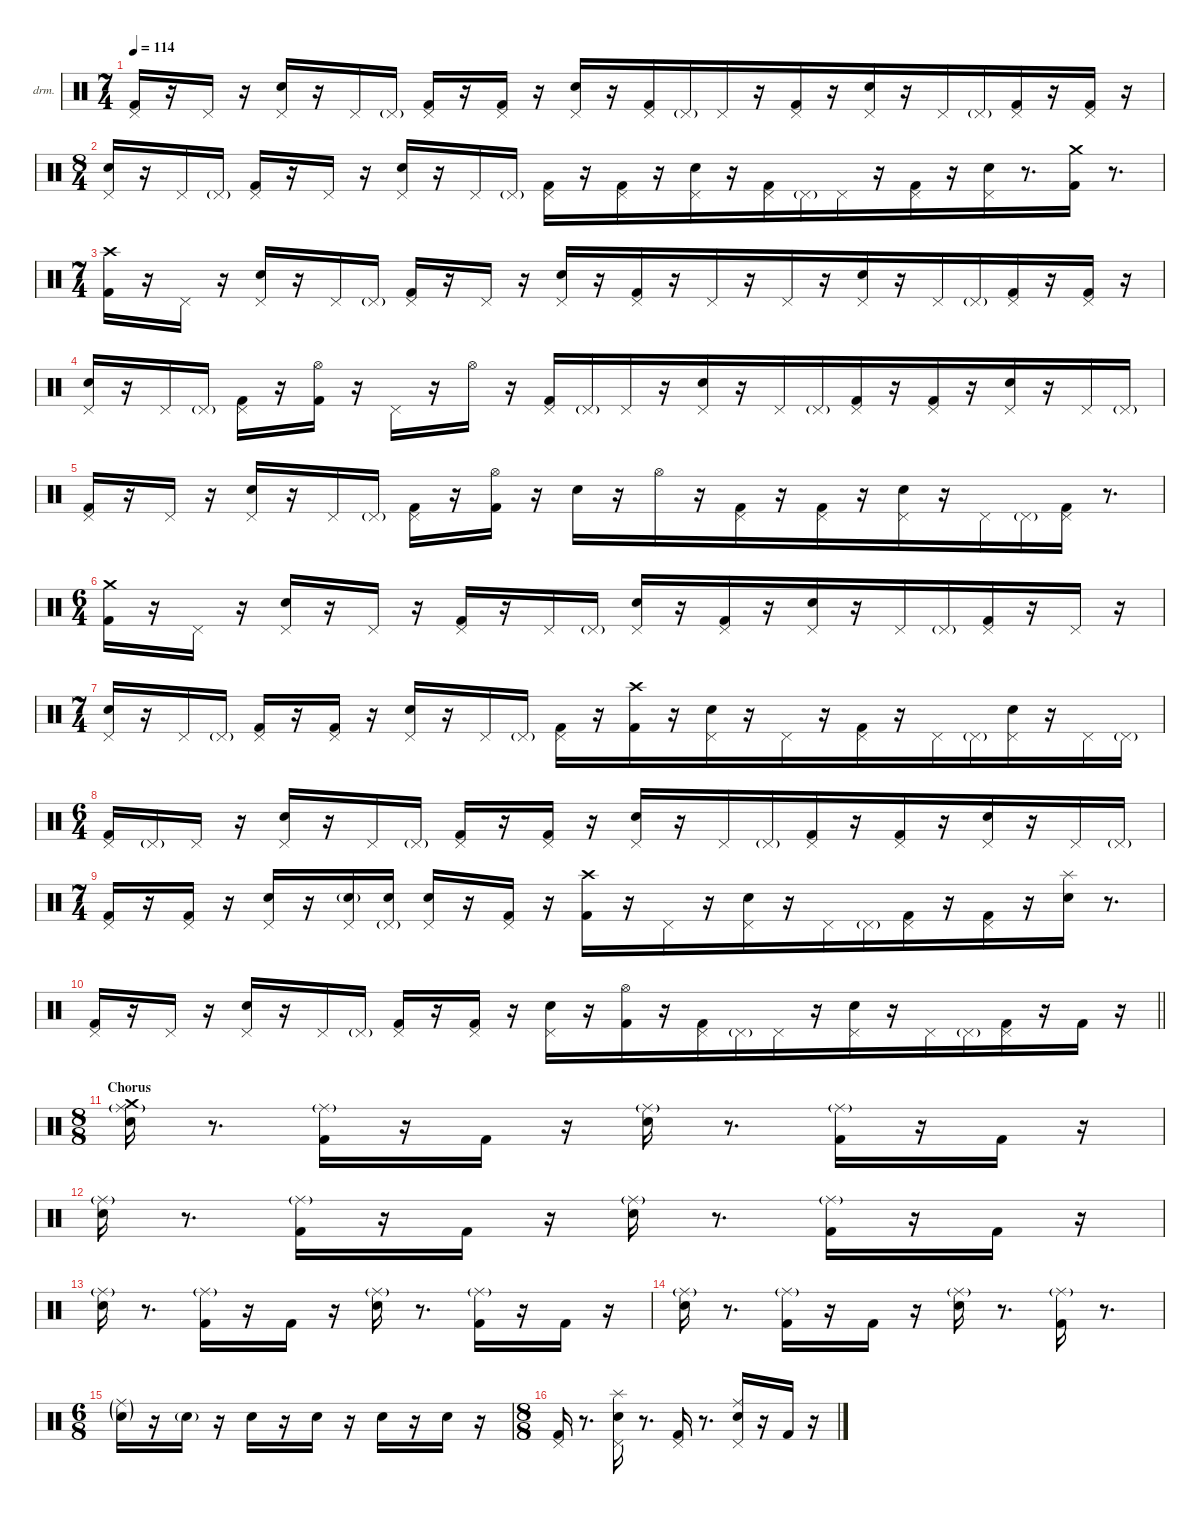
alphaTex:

\defaultSystemsLayout 4
\hideDynamics
\bracketExtendMode nobrackets
\firstSystemTrackNameOrientation horizontal
\otherSystemsTrackNameOrientation horizontal
\track ("Drums" "drm.") {instrument percussion}
\staff {score}
\articulation defaults
\ts (7 4)
\beaming (8 2 2 2 8)
\tempo 114
\clef neutral
\ks c
("Pedal Hi-Hat (hit)" "Kick (hit) 2").16{dy f beam Up} r.16{beam Up} "Pedal Hi-Hat (hit)".16{beam Up} r.16{beam Up} ("Pedal Hi-Hat (hit)" "Snare (hit) 2").16{beam Up} r.16{beam Up} "Pedal Hi-Hat (hit)".16{beam Up} "Pedal Hi-Hat (hit)"{g}.16{dy mf beam Up} ("Pedal Hi-Hat (hit)" "Kick (hit) 2").16{dy f beam Up} r.16{beam Up} ("Pedal Hi-Hat (hit)" "Kick (hit) 2").16{beam Up} r.16{beam Up} ("Pedal Hi-Hat (hit)" "Snare (hit) 2").16{beam Up} r.16{beam Up} ("Pedal Hi-Hat (hit)" "Kick (hit) 2").16{beam Up} "Pedal Hi-Hat (hit)"{g}.16{dy mf beam Up} "Pedal Hi-Hat (hit)".16{dy f beam Up} r.16{beam Up} ("Pedal Hi-Hat (hit)" "Kick (hit) 2").16{beam Up} r.16{beam Up} ("Pedal Hi-Hat (hit)" "Snare (hit) 2").16{beam Up} r.16{beam Up} "Pedal Hi-Hat (hit)".16{beam Up} "Pedal Hi-Hat (hit)"{g}.16{dy mf beam Up} ("Pedal Hi-Hat (hit)" "Kick (hit) 2").16{dy f beam Up} r.16{beam Up} ("Pedal Hi-Hat (hit)" "Kick (hit) 2").16{beam Up} r.16{beam Up} |
\ts (8 4)
\beaming (8 2 2 2 10)
("Pedal Hi-Hat (hit)" "Snare (hit) 2").16{beam Up} r.16{beam Up} "Pedal Hi-Hat (hit)".16{beam Up} "Pedal Hi-Hat (hit)"{g}.16{dy mf beam Up} ("Pedal Hi-Hat (hit)" "Kick (hit) 2").16{dy f beam Up} r.16{beam Up} "Pedal Hi-Hat (hit)".16{beam Up} r.16{beam Up} ("Pedal Hi-Hat (hit)" "Snare (hit) 2").16{beam Up} r.16{beam Up} "Pedal Hi-Hat (hit)".16{beam Up} "Pedal Hi-Hat (hit)"{g}.16{dy mf beam Up} ("Pedal Hi-Hat (hit)" "Kick (hit) 2").16{dy f beam Down} r.16{beam Down} ("Pedal Hi-Hat (hit)" "Kick (hit) 2").16{beam Down} r.16{beam Down} ("Pedal Hi-Hat (hit)" "Snare (hit) 2").16{beam Down} r.16{beam Down} ("Pedal Hi-Hat (hit)" "Kick (hit) 2").16{beam Down} "Pedal Hi-Hat (hit)"{g}.16{dy mf beam Down} "Pedal Hi-Hat (hit)".16{dy f beam Down} r.16{beam Down} ("Pedal Hi-Hat (hit)" "Kick (hit) 2").16{beam Down} r.16{beam Down} ("Pedal Hi-Hat (hit)" "Snare (hit) 2").16{beam Down} r.8{d beam Down} ("Crash medium (hit)" "Kick (hit) 2").16{beam Down} r.8{d beam Down} |
\ts (7 4)
\beaming (8 2 2 2 8)
("Crash high (hit)" "Kick (hit) 2").16{beam Down} r.16{beam Down} "Pedal Hi-Hat (hit)".16{beam Down} r.16{beam Down} ("Pedal Hi-Hat (hit)" "Snare (hit) 2").16{beam Up} r.16{beam Up} "Pedal Hi-Hat (hit)".16{beam Up} "Pedal Hi-Hat (hit)"{g}.16{dy mf beam Up} ("Pedal Hi-Hat (hit)" "Kick (hit) 2").16{dy f beam Up} r.16{beam Up} "Pedal Hi-Hat (hit)".16{beam Up} r.16{beam Up} ("Pedal Hi-Hat (hit)" "Snare (hit) 2").16{beam Up} r.16{beam Up} ("Pedal Hi-Hat (hit)" "Kick (hit) 2").16{beam Up} r.16{beam Up} "Pedal Hi-Hat (hit)".16{beam Up} r.16{beam Up} "Pedal Hi-Hat (hit)".16{beam Up} r.16{beam Up} ("Pedal Hi-Hat (hit)" "Snare (hit) 2").16{beam Up} r.16{beam Up} "Pedal Hi-Hat (hit)".16{beam Up} "Pedal Hi-Hat (hit)"{g}.16{dy mf beam Up} ("Pedal Hi-Hat (hit)" "Kick (hit) 2").16{dy f beam Up} r.16{beam Up} ("Pedal Hi-Hat (hit)" "Kick (hit) 2").16{beam Up} r.16{beam Up} |
("Pedal Hi-Hat (hit)" "Snare (hit) 2").16{beam Up} r.16{beam Up} "Pedal Hi-Hat (hit)".16{beam Up} "Pedal Hi-Hat (hit)"{g}.16{dy mf beam Up} ("Pedal Hi-Hat (hit)" "Kick (hit) 2").16{dy f beam Down} r.16{beam Down} ("Hi-Hat (open)" "Kick (hit) 2").16{beam Down} r.16{beam Down} "Pedal Hi-Hat (hit)".16{beam Down} r.16{beam Down} "Hi-Hat (open)".16{beam Down} r.16{beam Down} ("Pedal Hi-Hat (hit)" "Kick (hit) 2").16{beam Up} "Pedal Hi-Hat (hit)"{g}.16{dy mf beam Up} "Pedal Hi-Hat (hit)".16{dy f beam Up} r.16{beam Up} ("Pedal Hi-Hat (hit)" "Snare (hit) 2").16{beam Up} r.16{beam Up} "Pedal Hi-Hat (hit)".16{beam Up} "Pedal Hi-Hat (hit)"{g}.16{dy mf beam Up} ("Pedal Hi-Hat (hit)" "Kick (hit) 2").16{dy f beam Up} r.16{beam Up} ("Pedal Hi-Hat (hit)" "Kick (hit) 2").16{beam Up} r.16{beam Up} ("Pedal Hi-Hat (hit)" "Snare (hit) 2").16{beam Up} r.16{beam Up} "Pedal Hi-Hat (hit)".16{beam Up} "Pedal Hi-Hat (hit)"{g}.16{dy mf beam Up} |
("Pedal Hi-Hat (hit)" "Kick (hit) 2").16{dy f beam Up} r.16{beam Up} "Pedal Hi-Hat (hit)".16{beam Up} r.16{beam Up} ("Pedal Hi-Hat (hit)" "Snare (hit) 2").16{beam Up} r.16{beam Up} "Pedal Hi-Hat (hit)".16{beam Up} "Pedal Hi-Hat (hit)"{g}.16{dy mf beam Up} ("Pedal Hi-Hat (hit)" "Kick (hit) 2").16{dy f beam Down} r.16{beam Down} ("Hi-Hat (open)" "Kick (hit) 2").16{beam Down} r.16{beam Down} "Snare (hit) 2".16{beam Down} r.16{beam Down} "Hi-Hat (open)".16{beam Down} r.16{beam Down} ("Pedal Hi-Hat (hit)" "Kick (hit) 2").16{beam Down} r.16{beam Down} ("Pedal Hi-Hat (hit)" "Kick (hit) 2").16{beam Down} r.16{beam Down} ("Pedal Hi-Hat (hit)" "Snare (hit) 2").16{beam Down} r.16{beam Down} "Pedal Hi-Hat (hit)".16{beam Down} "Pedal Hi-Hat (hit)"{g}.16{dy mf beam Down} ("Pedal Hi-Hat (hit)" "Kick (hit) 2").16{dy f beam Down} r.8{d beam Down} |
\ts (6 4)
\beaming (8 2 2 2 6)
("Crash medium (hit)" "Kick (hit) 2").16{beam Down} r.16{beam Down} "Pedal Hi-Hat (hit)".16{beam Down} r.16{beam Down} ("Pedal Hi-Hat (hit)" "Snare (hit) 2").16{beam Up} r.16{beam Up} "Pedal Hi-Hat (hit)".16{beam Up} r.16{beam Up} ("Pedal Hi-Hat (hit)" "Kick (hit) 2").16{beam Up} r.16{beam Up} "Pedal Hi-Hat (hit)".16{beam Up} "Pedal Hi-Hat (hit)"{g}.16{dy mf beam Up} ("Pedal Hi-Hat (hit)" "Snare (hit) 2").16{dy f beam Up} r.16{beam Up} ("Pedal Hi-Hat (hit)" "Kick (hit) 2").16{beam Up} r.16{beam Up} ("Pedal Hi-Hat (hit)" "Snare (hit) 2").16{beam Up} r.16{beam Up} "Pedal Hi-Hat (hit)".16{beam Up} "Pedal Hi-Hat (hit)"{g}.16{dy mf beam Up} ("Pedal Hi-Hat (hit)" "Kick (hit) 2").16{dy f beam Up} r.16{beam Up} "Pedal Hi-Hat (hit)".16{beam Up} r.16{beam Up} |
\ts (7 4)
\beaming (8 2 2 2 8)
("Pedal Hi-Hat (hit)" "Snare (hit) 2").16{beam Up} r.16{beam Up} "Pedal Hi-Hat (hit)".16{beam Up} "Pedal Hi-Hat (hit)"{g}.16{dy mf beam Up} ("Pedal Hi-Hat (hit)" "Kick (hit) 2").16{dy f beam Up} r.16{beam Up} ("Pedal Hi-Hat (hit)" "Kick (hit) 2").16{beam Up} r.16{beam Up} ("Pedal Hi-Hat (hit)" "Snare (hit) 2").16{beam Up} r.16{beam Up} "Pedal Hi-Hat (hit)".16{beam Up} "Pedal Hi-Hat (hit)"{g}.16{dy mf beam Up} ("Pedal Hi-Hat (hit)" "Kick (hit) 2").16{dy f beam Down} r.16{beam Down} ("Crash high (hit)" "Kick (hit) 2").16{beam Down} r.16{beam Down} ("Pedal Hi-Hat (hit)" "Snare (hit) 2").16{beam Down} r.16{beam Down} "Pedal Hi-Hat (hit)".16{beam Down} r.16{beam Down} ("Pedal Hi-Hat (hit)" "Kick (hit) 2").16{beam Down} r.16{beam Down} "Pedal Hi-Hat (hit)".16{beam Down} "Pedal Hi-Hat (hit)"{g}.16{dy mf beam Down} ("Pedal Hi-Hat (hit)" "Snare (hit) 2").16{dy f beam Down} r.16{beam Down} "Pedal Hi-Hat (hit)".16{beam Down} "Pedal Hi-Hat (hit)"{g}.16{dy mf beam Down} |
\ts (6 4)
\beaming (8 2 2 2 6)
("Pedal Hi-Hat (hit)" "Kick (hit) 2").16{dy f beam Up} "Pedal Hi-Hat (hit)"{g}.16{dy mf beam Up} "Pedal Hi-Hat (hit)".16{dy f beam Up} r.16{beam Up} ("Pedal Hi-Hat (hit)" "Snare (hit) 2").16{beam Up} r.16{beam Up} "Pedal Hi-Hat (hit)".16{beam Up} "Pedal Hi-Hat (hit)"{g}.16{dy mf beam Up} ("Pedal Hi-Hat (hit)" "Kick (hit) 2").16{dy f beam Up} r.16{beam Up} ("Pedal Hi-Hat (hit)" "Kick (hit) 2").16{beam Up} r.16{beam Up} ("Pedal Hi-Hat (hit)" "Snare (hit) 2").16{beam Up} r.16{beam Up} "Pedal Hi-Hat (hit)".16{beam Up} "Pedal Hi-Hat (hit)"{g}.16{dy mf beam Up} ("Pedal Hi-Hat (hit)" "Kick (hit) 2").16{dy f beam Up} r.16{beam Up} ("Pedal Hi-Hat (hit)" "Kick (hit) 2").16{beam Up} r.16{beam Up} ("Pedal Hi-Hat (hit)" "Snare (hit) 2").16{beam Up} r.16{beam Up} "Pedal Hi-Hat (hit)".16{beam Up} "Pedal Hi-Hat (hit)"{g}.16{dy mf beam Up} |
\ts (7 4)
\beaming (8 2 2 2 8)
("Pedal Hi-Hat (hit)" "Kick (hit) 2").16{dy f beam Up} r.16{beam Up} ("Pedal Hi-Hat (hit)" "Kick (hit) 2").16{beam Up} r.16{beam Up} ("Pedal Hi-Hat (hit)" "Snare (hit) 2").16{beam Up} r.16{beam Up} ("Pedal Hi-Hat (hit)" "Snare (hit) 2"{g}).16{beam Up} ("Pedal Hi-Hat (hit)"{g} "Snare (hit) 2").16{beam Up} ("Pedal Hi-Hat (hit)" "Snare (hit) 2").16{beam Up} r.16{beam Up} ("Pedal Hi-Hat (hit)" "Kick (hit) 2").16{beam Up} r.16{beam Up} ("Crash high (hit)" "Kick (hit) 2").16{beam Down} r.16{beam Down} "Pedal Hi-Hat (hit)".16{beam Down} r.16{beam Down} ("Pedal Hi-Hat (hit)" "Snare (hit) 2").16{beam Down} r.16{beam Down} "Pedal Hi-Hat (hit)".16{beam Down} "Pedal Hi-Hat (hit)"{g}.16{dy mf beam Down} ("Pedal Hi-Hat (hit)" "Kick (hit) 2").16{dy f beam Down} r.16{beam Down} ("Pedal Hi-Hat (hit)" "Kick (hit) 2").16{beam Down} r.16{beam Down} ("Splash (hit)" "Snare (hit) 2").16{beam Down} r.8{d beam Down} |
\barLineRight lightlight
("Pedal Hi-Hat (hit)" "Kick (hit) 2").16{beam Up} r.16{beam Up} "Pedal Hi-Hat (hit)".16{beam Up} r.16{beam Up} ("Pedal Hi-Hat (hit)" "Snare (hit) 2").16{beam Up} r.16{beam Up} "Pedal Hi-Hat (hit)".16{beam Up} "Pedal Hi-Hat (hit)"{g}.16{dy mf beam Up} ("Pedal Hi-Hat (hit)" "Kick (hit) 2").16{dy f beam Up} r.16{beam Up} ("Pedal Hi-Hat (hit)" "Kick (hit) 2").16{beam Up} r.16{beam Up} ("Pedal Hi-Hat (hit)" "Snare (hit) 2").16{beam Down} r.16{beam Down} ("Hi-Hat (open)" "Kick (hit) 2").16{beam Down} r.16{beam Down} ("Pedal Hi-Hat (hit)" "Kick (hit) 2").16{beam Down} "Pedal Hi-Hat (hit)"{g}.16{dy mf beam Down} "Pedal Hi-Hat (hit)".16{dy f beam Down} r.16{beam Down} ("Pedal Hi-Hat (hit)" "Snare (hit) 2").16{beam Down} r.16{beam Down} "Pedal Hi-Hat (hit)".16{beam Down} "Pedal Hi-Hat (hit)"{g}.16{dy mf beam Down} ("Pedal Hi-Hat (hit)" "Kick (hit) 2").16{dy f beam Down} r.16{beam Down} "Kick (hit) 2".16{beam Down} r.16{beam Down} |
\ts (8 8)
\beaming (8 2 2 2 2)
\section ("" "Chorus")
("Crash medium (hit)" "Ride (middle)"{g} "Snare (hit) 2").16{beam Down} r.8{d beam Down} ("Ride (middle)"{g} "Kick (hit) 2").16{beam Down} r.16{beam Down} "Kick (hit) 2".16{beam Down} r.16{beam Down} ("Ride (middle)"{g} "Snare (hit) 2").16{beam Down} r.8{d beam Down} ("Ride (middle)"{g} "Kick (hit) 2").16{beam Down} r.16{beam Down} "Kick (hit) 2".16{beam Down} r.16{beam Down} |
("Ride (middle)"{g} "Snare (hit) 2").16{beam Down} r.8{d beam Down} ("Ride (middle)"{g} "Kick (hit) 2").16{beam Down} r.16{beam Down} "Kick (hit) 2".16{beam Down} r.16{beam Down} ("Ride (middle)"{g} "Snare (hit) 2").16{beam Down} r.8{d beam Down} ("Ride (middle)"{g} "Kick (hit) 2").16{beam Down} r.16{beam Down} "Kick (hit) 2".16{beam Down} r.16{beam Down} |
("Ride (middle)"{g} "Snare (hit) 2").16{beam Down} r.8{d beam Down} ("Ride (middle)"{g} "Kick (hit) 2").16{beam Down} r.16{beam Down} "Kick (hit) 2".16{beam Down} r.16{beam Down} ("Ride (middle)"{g} "Snare (hit) 2").16{beam Down} r.8{d beam Down} ("Ride (middle)"{g} "Kick (hit) 2").16{beam Down} r.16{beam Down} "Kick (hit) 2".16{beam Down} r.16{beam Down} |
("Ride (middle)"{g} "Snare (hit) 2").16{beam Down} r.8{d beam Down} ("Ride (middle)"{g} "Kick (hit) 2").16{beam Down} r.16{beam Down} "Kick (hit) 2".16{beam Down} r.16{beam Down} ("Ride (middle)"{g} "Snare (hit) 2").16{beam Down} r.8{d beam Down} ("Ride (middle)"{g} "Kick (hit) 2").16{beam Down} r.8{d beam Down} |
\ts (6 8)
\beaming (8 2 2 2 2)
("Ride (middle)"{g} "Snare (hit) 2"{g}).16{dy pp beam Down} r.16{beam Down} "Snare (hit) 2"{g}.16{dy mf beam Down} r.16{beam Down} "Snare (hit) 2".16{dy f beam Down} r.16{beam Down} "Snare (hit) 2".16{beam Down} r.16{beam Down} "Snare (hit) 2".16{beam Down} r.16{beam Down} "Snare (hit) 2".16{beam Down} r.16{beam Down} |
\ts (8 8)
\beaming (8 2 2 2 2)
("Pedal Hi-Hat (hit)" "Kick (hit) 2").16{beam Up} r.8{d beam Up} ("Splash (hit)" "Pedal Hi-Hat (hit)" "Snare (hit) 2").16{beam Down} r.8{d beam Down} ("Pedal Hi-Hat (hit)" "Kick (hit) 2").16{beam Up} r.8{d beam Up} ("Ride (middle)" "Pedal Hi-Hat (hit)" "Snare (hit) 2").16{beam Up} r.16{beam Up} "Kick (hit) 2".16{beam Up} r.16{beam Up}
